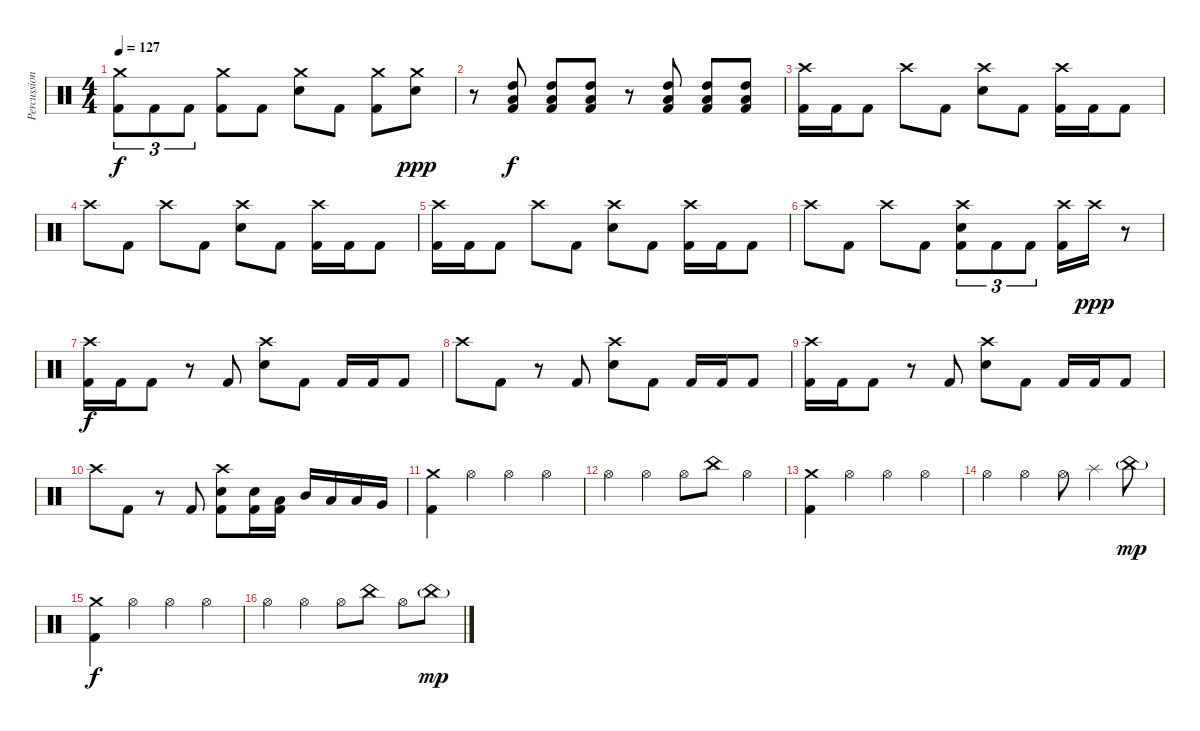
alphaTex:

\track ("Percussion" "Percussion") {instrument percussion}
\staff {score}
\articulation defaults
\ts (4 4)
\tempo 127
\clef neutral
\ks c
("Crash medium (hit)" "Kick (hit) 2").8{tu (3 2) dy f} "Kick (hit) 2".8{tu (3 2)} "Kick (hit) 2".8{tu (3 2)} ("Crash medium (hit)" "Kick (hit) 2").8 "Kick (hit) 2".8 ("Crash medium (hit)" "Electric Snare (hit)").8 "Kick (hit) 2".8 ("Crash medium (hit)" "Kick (hit) 2").8 ("Crash medium (hit)" "Electric Snare (hit)").8{dy ppp} |
r.8 ("Low Tom (hit)" "High Tom (hit)" "Kick (hit) 2").8{dy f} ("Low Tom (hit)" "High Tom (hit)" "Kick (hit) 2").8 ("Low Tom (hit)" "High Tom (hit)" "Kick (hit) 2").8 r.8 ("Low Tom (hit)" "High Tom (hit)" "Kick (hit) 2").8 ("Low Tom (hit)" "High Tom (hit)" "Kick (hit) 2").8 ("Low Tom (hit)" "High Tom (hit)" "Kick (hit) 2").8 |
("Crash high (hit)" "Kick (hit) 2").16 "Kick (hit) 2".16 "Kick (hit) 2".8 "Crash high (hit)".8 "Kick (hit) 2".8 ("Crash high (hit)" "Electric Snare (hit)").8 "Kick (hit) 2".8 ("Crash high (hit)" "Kick (hit) 2").16 "Kick (hit) 2".16 "Kick (hit) 2".8 |
"Crash high (hit)".8 "Kick (hit) 2".8 "Crash high (hit)".8 "Kick (hit) 2".8 ("Crash high (hit)" "Electric Snare (hit)").8 "Kick (hit) 2".8 ("Crash high (hit)" "Kick (hit) 2").16 "Kick (hit) 2".16 "Kick (hit) 2".8 |
("Crash high (hit)" "Kick (hit) 2").16 "Kick (hit) 2".16 "Kick (hit) 2".8 "Crash high (hit)".8 "Kick (hit) 2".8 ("Crash high (hit)" "Electric Snare (hit)").8 "Kick (hit) 2".8 ("Crash high (hit)" "Kick (hit) 2").16 "Kick (hit) 2".16 "Kick (hit) 2".8 |
"Crash high (hit)".8 "Kick (hit) 2".8 "Crash high (hit)".8 "Kick (hit) 2".8 ("Crash high (hit)" "Electric Snare (hit)" "Kick (hit) 2").8{tu (3 2)} "Kick (hit) 2".8{tu (3 2)} "Kick (hit) 2".8{tu (3 2)} ("Crash high (hit)" "Kick (hit) 2").16 "Crash high (hit)".16{dy ppp} r.8 |
("Crash high (hit)" "Kick (hit) 2").16{dy f} "Kick (hit) 2".16 "Kick (hit) 2".8 r.8 "Kick (hit) 2".8 ("Crash high (hit)" "Electric Snare (hit)").8 "Kick (hit) 2".8 "Kick (hit) 2".16 "Kick (hit) 2".16 "Kick (hit) 2".8 |
"Crash high (hit)".8 "Kick (hit) 2".8 r.8 "Kick (hit) 2".8 ("Crash high (hit)" "Electric Snare (hit)").8 "Kick (hit) 2".8 "Kick (hit) 2".16 "Kick (hit) 2".16 "Kick (hit) 2".8 |
("Crash high (hit)" "Kick (hit) 2").16 "Kick (hit) 2".16 "Kick (hit) 2".8 r.8 "Kick (hit) 2".8 ("Crash high (hit)" "Electric Snare (hit)").8 "Kick (hit) 2".8 "Kick (hit) 2".16 "Kick (hit) 2".16 "Kick (hit) 2".8 |
"Crash high (hit)".8 "Kick (hit) 2".8 r.8 "Kick (hit) 2".8 ("Crash high (hit)" "Electric Snare (hit)" "Kick (hit) 2").8 ("Electric Snare (hit)" "Kick (hit) 2").16 ("Low Tom (hit)" "Kick (hit) 2").16 "Mid Tom (hit)".16 "Low Tom (hit)".16 "Low Tom (hit)".16 "Very Low Tom (hit)".16 |
("Crash medium (hit)" "Kick (hit) 2").4 "Hi-Hat (open)".4 "Hi-Hat (open)".4 "Hi-Hat (open)".4 |
"Hi-Hat (open)".4 "Hi-Hat (open)".4 "Hi-Hat (open)".8 "China (hit)".8 "Hi-Hat (open)".4 |
("Crash medium (hit)" "Kick (hit) 2").4 "Hi-Hat (open)".4 "Hi-Hat (open)".4 "Hi-Hat (open)".4 |
"Hi-Hat (open)".4 "Hi-Hat (open)".4 "Hi-Hat (open)".8 "Splash (hit)".4 "China (hit)"{g}.8{dy mp} |
("Crash medium (hit)" "Kick (hit) 2").4{dy f} "Hi-Hat (open)".4 "Hi-Hat (open)".4 "Hi-Hat (open)".4 |
"Hi-Hat (open)".4 "Hi-Hat (open)".4 "Hi-Hat (open)".8 "China (hit)".8 "Hi-Hat (open)".8 "China (hit)"{g}.8{dy mp}
